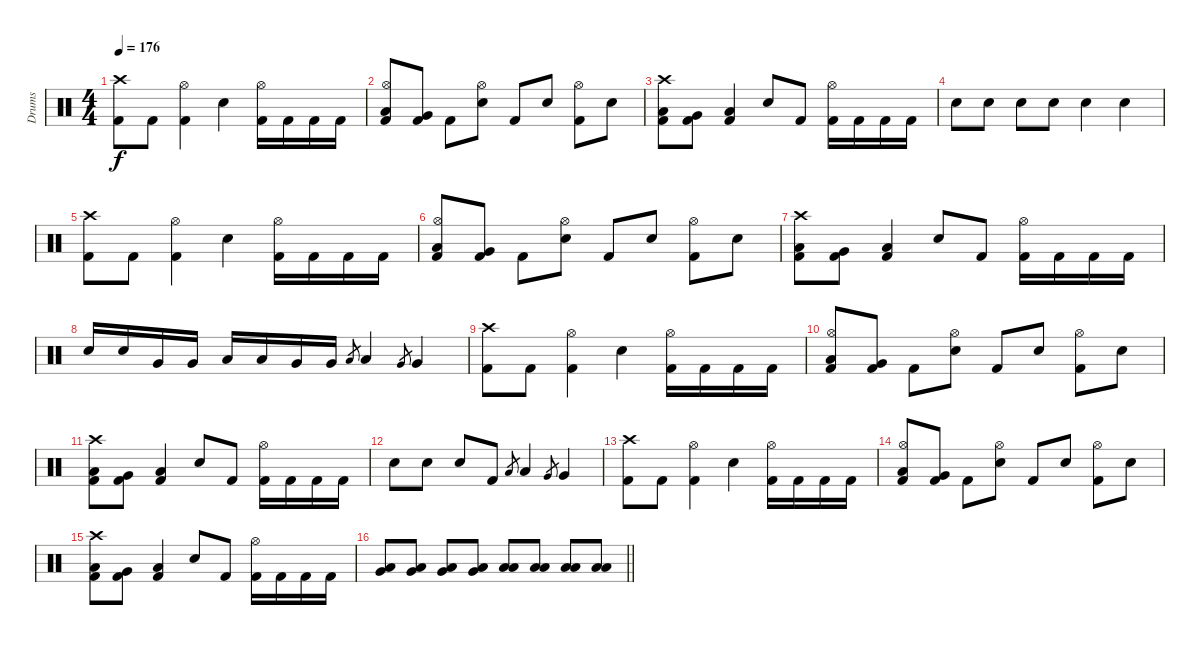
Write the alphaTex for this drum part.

\track ("Drums" "Drums") {instrument percussion}
\staff {score}
\articulation defaults
\ts (4 4)
\tempo 176
\clef neutral
\ks c
("Crash high (hit)" "Kick (hit) 2").8{dy f} "Kick (hit) 2".8 ("Hi-Hat (open)" "Kick (hit) 2").4 "Snare (hit) 2".4 ("Hi-Hat (open)" "Kick (hit) 2").16 "Kick (hit) 2".16 "Kick (hit) 2".16 "Kick (hit) 2".16 |
("Hi-Hat (open)" "Low Tom (hit)" "Kick (hit) 2").8 ("Very Low Tom (hit)" "Kick (hit) 2").8 "Kick (hit) 2".8 ("Hi-Hat (open)" "Snare (hit) 2").8 "Kick (hit) 2".8 "Snare (hit) 2".8 ("Hi-Hat (open)" "Kick (hit) 2").8 "Snare (hit) 2".8 |
("Crash high (hit)" "Low Tom (hit)" "Kick (hit) 2").8 ("Very Low Tom (hit)" "Kick (hit) 2").8 ("Low Floor Tom (hit)" "Kick (hit) 2").4 "Snare (hit) 2".8 "Kick (hit) 2".8 ("Hi-Hat (open)" "Kick (hit) 2").16 "Kick (hit) 2".16 "Kick (hit) 2".16 "Kick (hit) 2".16 |
"Snare (hit) 2".8 "Snare (hit) 2".8 "Snare (hit) 2".8 "Snare (hit) 2".8 "Snare (hit) 2".4 "Snare (hit) 2".4 |
("Crash high (hit)" "Kick (hit) 2").8 "Kick (hit) 2".8 ("Hi-Hat (open)" "Kick (hit) 2").4 "Snare (hit) 2".4 ("Hi-Hat (open)" "Kick (hit) 2").16 "Kick (hit) 2".16 "Kick (hit) 2".16 "Kick (hit) 2".16 |
("Hi-Hat (open)" "Low Tom (hit)" "Kick (hit) 2").8 ("Very Low Tom (hit)" "Kick (hit) 2").8 "Kick (hit) 2".8 ("Hi-Hat (open)" "Snare (hit) 2").8 "Kick (hit) 2".8 "Snare (hit) 2".8 ("Hi-Hat (open)" "Kick (hit) 2").8 "Snare (hit) 2".8 |
("Crash high (hit)" "Low Tom (hit)" "Kick (hit) 2").8 ("Very Low Tom (hit)" "Kick (hit) 2").8 ("Low Floor Tom (hit)" "Kick (hit) 2").4 "Snare (hit) 2".8 "Kick (hit) 2".8 ("Hi-Hat (open)" "Kick (hit) 2").16 "Kick (hit) 2".16 "Kick (hit) 2".16 "Kick (hit) 2".16 |
"Snare (hit) 2".16 "Snare (hit) 2".16 "Very Low Tom (hit)".16 "Very Low Tom (hit)".16 "Low Tom (hit)".16 "Low Tom (hit)".16 "Very Low Tom (hit)".16 "Very Low Tom (hit)".16 "Low Tom (hit)".8{gr} "Low Tom (hit)".4 "Very Low Tom (hit)".8{gr} "Very Low Tom (hit)".4 |
("Crash high (hit)" "Kick (hit) 2").8 "Kick (hit) 2".8 ("Hi-Hat (open)" "Kick (hit) 2").4 "Snare (hit) 2".4 ("Hi-Hat (open)" "Kick (hit) 2").16 "Kick (hit) 2".16 "Kick (hit) 2".16 "Kick (hit) 2".16 |
("Hi-Hat (open)" "Low Tom (hit)" "Kick (hit) 2").8 ("Very Low Tom (hit)" "Kick (hit) 2").8 "Kick (hit) 2".8 ("Hi-Hat (open)" "Snare (hit) 2").8 "Kick (hit) 2".8 "Snare (hit) 2".8 ("Hi-Hat (open)" "Kick (hit) 2").8 "Snare (hit) 2".8 |
("Crash high (hit)" "Low Tom (hit)" "Kick (hit) 2").8 ("Very Low Tom (hit)" "Kick (hit) 2").8 ("Low Floor Tom (hit)" "Kick (hit) 2").4 "Snare (hit) 2".8 "Kick (hit) 2".8 ("Hi-Hat (open)" "Kick (hit) 2").16 "Kick (hit) 2".16 "Kick (hit) 2".16 "Kick (hit) 2".16 |
"Snare (hit) 2".8 "Snare (hit) 2".8 "Snare (hit) 2".8 "Kick (hit) 2".8 "Low Tom (hit)".8{gr} "Low Tom (hit)".4 "Very Low Tom (hit)".8{gr} "Very Low Tom (hit)".4 |
("Crash high (hit)" "Kick (hit) 2").8 "Kick (hit) 2".8 ("Hi-Hat (open)" "Kick (hit) 2").4 "Snare (hit) 2".4 ("Hi-Hat (open)" "Kick (hit) 2").16 "Kick (hit) 2".16 "Kick (hit) 2".16 "Kick (hit) 2".16 |
("Hi-Hat (open)" "Low Tom (hit)" "Kick (hit) 2").8 ("Very Low Tom (hit)" "Kick (hit) 2").8 "Kick (hit) 2".8 ("Hi-Hat (open)" "Snare (hit) 2").8 "Kick (hit) 2".8 "Snare (hit) 2".8 ("Hi-Hat (open)" "Kick (hit) 2").8 "Snare (hit) 2".8 |
("Crash high (hit)" "Low Tom (hit)" "Kick (hit) 2").8 ("Very Low Tom (hit)" "Kick (hit) 2").8 ("Low Floor Tom (hit)" "Kick (hit) 2").4 "Snare (hit) 2".8 "Kick (hit) 2".8 ("Hi-Hat (open)" "Kick (hit) 2").16 "Kick (hit) 2".16 "Kick (hit) 2".16 "Kick (hit) 2".16 |
\barLineRight lightlight
("Very Low Tom (hit)" "Low Tom (hit)").8 ("Very Low Tom (hit)" "Low Tom (hit)").8 ("Very Low Tom (hit)" "Low Tom (hit)").8 ("Very Low Tom (hit)" "Low Tom (hit)").8 ("Low Floor Tom (hit)" "Low Tom (hit)").8 ("Low Floor Tom (hit)" "Low Tom (hit)").8 ("Low Floor Tom (hit)" "Low Tom (hit)").8 ("Low Floor Tom (hit)" "Low Tom (hit)").8
